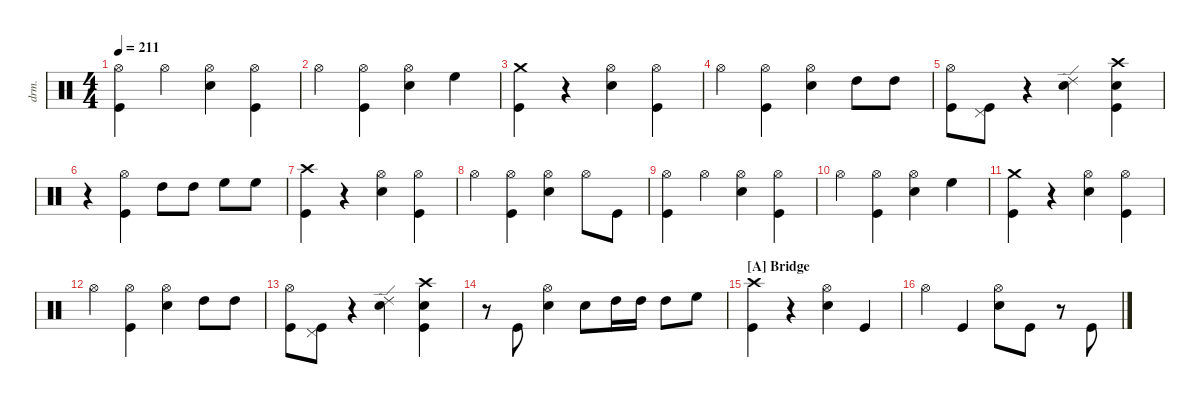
\defaultSystemsLayout 4
\hideDynamics
\bracketExtendMode nobrackets
\track ("Drums" "drm.") {instrument percussion}
\staff {score}
\articulation defaults
\ts (4 4)
\tempo 211
\clef neutral
\ks c
("Kick (hit)" "Hi-Hat (open)"{acc #}).4{dy fff beam Down} "Hi-Hat (open)"{acc #}.4{dy mf beam Down} ("Snare (hit) 2" "Hi-Hat (open)"{acc #}).4{dy ff beam Down} ("Kick (hit)" "Hi-Hat (open)"{acc #}).4{beam Down} |
"Hi-Hat (open)"{acc #}.4{dy fff beam Down} ("Kick (hit)" "Hi-Hat (open)"{acc #}).4{dy ff beam Down} ("Snare (hit) 2" "Hi-Hat (open)"{acc #}).4{beam Down} "High Floor Tom (hit)".4{beam Down} |
("Kick (hit)" "Crash medium (hit)").4{dy fff beam Down} r.4{beam Down} ("Snare (hit) 2" "Hi-Hat (open)"{acc #}).4{dy ff beam Down} ("Kick (hit)" "Hi-Hat (open)"{acc #}).4{beam Down} |
"Hi-Hat (open)"{acc #}.4{dy fff beam Down} ("Kick (hit)" "Hi-Hat (open)"{acc #}).4{dy ff beam Down} ("Snare (hit) 2" "Hi-Hat (open)"{acc #}).4{beam Down} "High Tom (hit)".8{beam Down} "High Tom (hit)".8{dy mf beam Down} |
("Kick (hit)" "Hi-Hat (open)"{acc #}).8{dy ff beam Down} ("Kick (hit)" "Pedal Hi-Hat (hit)"{acc #}).8{dy fff beam Down} r.4{beam Down} ("Snare (hit) 2" "Ride (edge) 2").4{dy f beam Down} ("Kick (hit)" "Snare (hit) 2" "Crash high (hit)"{acc #}).4{dy ff beam Down} |
r.4{beam Down} ("Kick (hit)" "Hi-Hat (open)"{acc #}).4{dy fff beam Down} "High Tom (hit)".8{dy ff beam Down} "High Tom (hit)".8{dy mf beam Down} "High Floor Tom (hit)".8{dy f beam Down} "High Floor Tom (hit)".8{dy mf beam Down} |
("Kick (hit)" "Crash high (hit)"{acc #}).4{dy fff beam Down} r.4{beam Down} ("Snare (hit) 2" "Hi-Hat (open)"{acc #}).4{dy ff beam Down} ("Kick (hit)" "Hi-Hat (open)"{acc #}).4{beam Down} |
"Hi-Hat (open)"{acc #}.4{dy fff beam Down} ("Kick (hit)" "Hi-Hat (open)"{acc #}).4{dy ff beam Down} ("Snare (hit) 2" "Hi-Hat (open)"{acc #}).4{beam Down} "Hi-Hat (open)"{acc #}.8{dy mf beam Down} "Kick (hit)".8{beam Down} |
("Kick (hit)" "Hi-Hat (open)"{acc #}).4{dy fff beam Down} "Hi-Hat (open)"{acc #}.4{dy mf beam Down} ("Snare (hit) 2" "Hi-Hat (open)"{acc #}).4{dy ff beam Down} ("Kick (hit)" "Hi-Hat (open)"{acc #}).4{beam Down} |
"Hi-Hat (open)"{acc #}.4{dy fff beam Down} ("Kick (hit)" "Hi-Hat (open)"{acc #}).4{dy ff beam Down} ("Snare (hit) 2" "Hi-Hat (open)"{acc #}).4{beam Down} "High Floor Tom (hit)".4{beam Down} |
("Kick (hit)" "Crash medium (hit)").4{dy fff beam Down} r.4{beam Down} ("Snare (hit) 2" "Hi-Hat (open)"{acc #}).4{dy ff beam Down} ("Kick (hit)" "Hi-Hat (open)"{acc #}).4{beam Down} |
"Hi-Hat (open)"{acc #}.4{dy fff beam Down} ("Kick (hit)" "Hi-Hat (open)"{acc #}).4{dy ff beam Down} ("Snare (hit) 2" "Hi-Hat (open)"{acc #}).4{beam Down} "High Tom (hit)".8{beam Down} "High Tom (hit)".8{dy mf beam Down} |
("Kick (hit)" "Hi-Hat (open)"{acc #}).8{dy ff beam Down} ("Kick (hit)" "Pedal Hi-Hat (hit)"{acc #}).8{dy fff beam Down} r.4{beam Down} ("Snare (hit) 2" "Ride (edge) 2").4{dy f beam Down} ("Kick (hit)" "Snare (hit) 2" "Crash high (hit)"{acc #}).4{dy ff beam Down} |
r.8{beam Down} "Kick (hit)".8{dy mf beam Up} ("Snare (hit) 2" "Hi-Hat (open)"{acc #}).4{dy fff beam Down} "Snare (hit) 2".8{beam Down} "High Tom (hit)".16{dy ff beam Down} "High Tom (hit)".16{dy pp beam Down} "High Tom (hit)".8{dy f beam Down} "High Floor Tom (hit)".8{dy mp beam Down} |
\section ("A" "Bridge")
("Kick (hit)" "Crash high (hit)"{acc #}).4{dy ff beam Down} r.4{beam Down} ("Snare (hit) 2" "Hi-Hat (open)"{acc #}).4{beam Down} "Kick (hit)".4{beam Up} |
"Hi-Hat (open)"{acc #}.4{beam Down} "Kick (hit)".4{beam Up} ("Snare (hit) 2" "Hi-Hat (open)"{acc #}).8{beam Down} "Kick (hit)".8{beam Down} r.8{beam Down} "Kick (hit)".8{dy mf beam Up}
